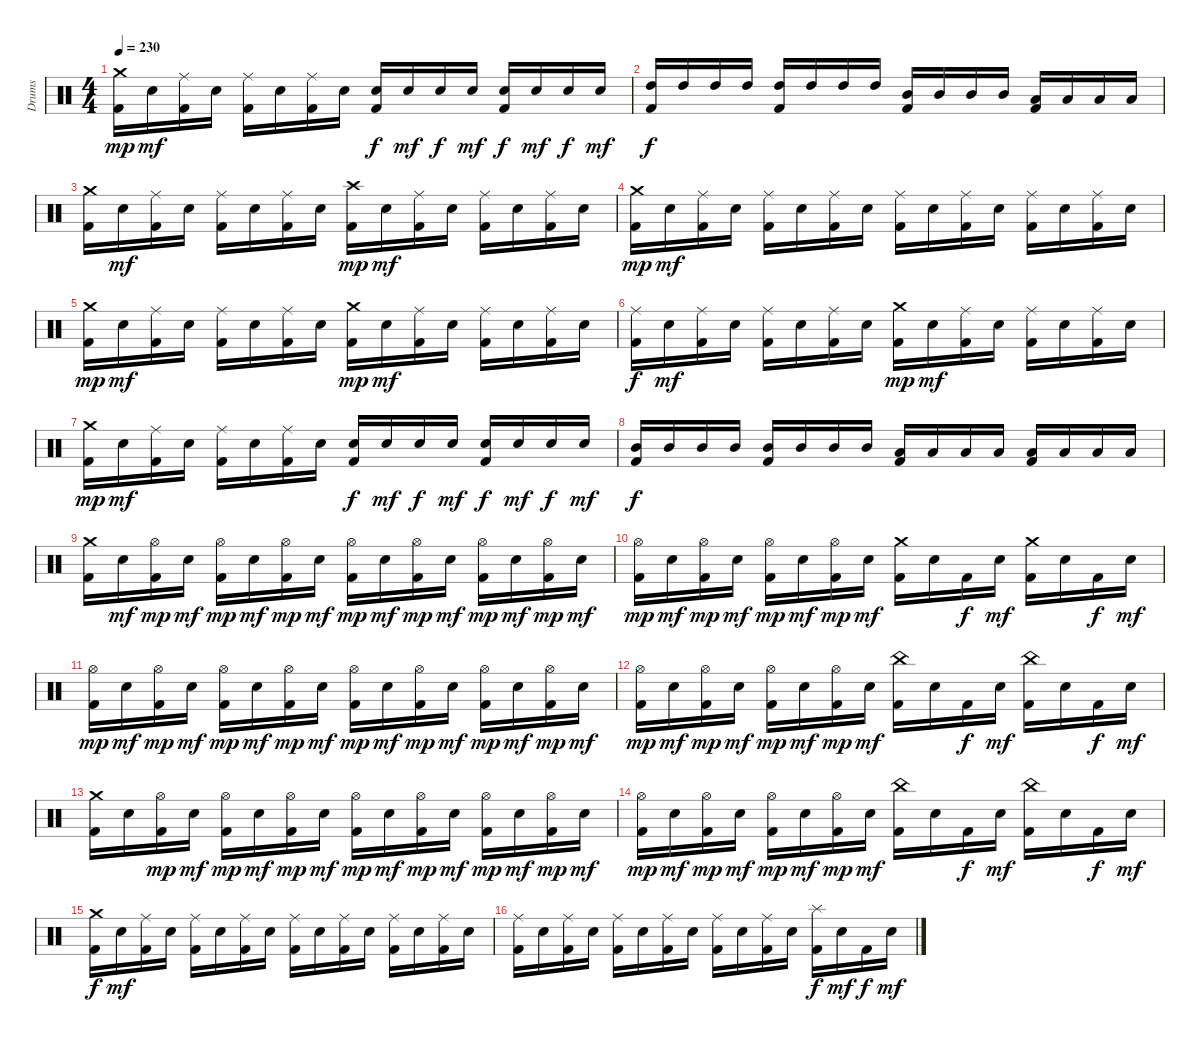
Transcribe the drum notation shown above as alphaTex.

\track ("Drums" "Drums") {instrument percussion}
\staff {score}
\articulation defaults
\ts (4 4)
\tempo 230
\clef neutral
\ks c
("Crash medium (hit)" "Kick (hit) 2").16{dy mp} "Electric Snare (hit)".16{dy mf} ("Ride (middle)" "Kick (hit) 2").16 "Electric Snare (hit)".16 ("Ride (middle)" "Kick (hit) 2").16 "Electric Snare (hit)".16 ("Ride (middle)" "Kick (hit) 2").16 "Electric Snare (hit)".16 ("Electric Snare (hit)" "Kick (hit) 2").16{dy f} "Electric Snare (hit)".16{dy mf} "Electric Snare (hit)".16{dy f} "Electric Snare (hit)".16{dy mf} ("Electric Snare (hit)" "Kick (hit) 2").16{dy f} "Electric Snare (hit)".16{dy mf} "Electric Snare (hit)".16{dy f} "Electric Snare (hit)".16{dy mf} |
("High Tom (hit)" "Kick (hit) 2").16{dy f} "High Tom (hit)".16 "High Tom (hit)".16 "High Tom (hit)".16 ("High Tom (hit)" "Kick (hit) 2").16 "High Tom (hit)".16 "High Tom (hit)".16 "High Tom (hit)".16 ("Mid Tom (hit)" "Kick (hit) 2").16 "Mid Tom (hit)".16 "Mid Tom (hit)".16 "Mid Tom (hit)".16 ("Low Tom (hit)" "Kick (hit) 2").16 "Low Tom (hit)".16 "Low Tom (hit)".16 "Low Tom (hit)".16 |
("Crash medium (hit)" "Kick (hit) 2").16 "Electric Snare (hit)".16{dy mf} ("Ride (middle)" "Kick (hit) 2").16 "Electric Snare (hit)".16 ("Ride (middle)" "Kick (hit) 2").16 "Electric Snare (hit)".16 ("Ride (middle)" "Kick (hit) 2").16 "Electric Snare (hit)".16 ("Crash high (hit)" "Kick (hit) 2").16{dy mp} "Electric Snare (hit)".16{dy mf} ("Ride (middle)" "Kick (hit) 2").16 "Electric Snare (hit)".16 ("Ride (middle)" "Kick (hit) 2").16 "Electric Snare (hit)".16 ("Ride (middle)" "Kick (hit) 2").16 "Electric Snare (hit)".16 |
("Crash medium (hit)" "Kick (hit) 2").16{dy mp} "Electric Snare (hit)".16{dy mf} ("Ride (middle)" "Kick (hit) 2").16 "Electric Snare (hit)".16 ("Ride (middle)" "Kick (hit) 2").16 "Electric Snare (hit)".16 ("Ride (middle)" "Kick (hit) 2").16 "Electric Snare (hit)".16 ("Ride (middle)" "Kick (hit) 2").16 "Electric Snare (hit)".16 ("Ride (middle)" "Kick (hit) 2").16 "Electric Snare (hit)".16 ("Ride (middle)" "Kick (hit) 2").16 "Electric Snare (hit)".16 ("Ride (middle)" "Kick (hit) 2").16 "Electric Snare (hit)".16 |
("Crash medium (hit)" "Kick (hit) 2").16{dy mp} "Electric Snare (hit)".16{dy mf} ("Ride (middle)" "Kick (hit) 2").16 "Electric Snare (hit)".16 ("Ride (middle)" "Kick (hit) 2").16 "Electric Snare (hit)".16 ("Ride (middle)" "Kick (hit) 2").16 "Electric Snare (hit)".16 ("Crash medium (hit)" "Kick (hit) 2").16{dy mp} "Electric Snare (hit)".16{dy mf} ("Ride (middle)" "Kick (hit) 2").16 "Electric Snare (hit)".16 ("Ride (middle)" "Kick (hit) 2").16 "Electric Snare (hit)".16 ("Ride (middle)" "Kick (hit) 2").16 "Electric Snare (hit)".16 |
("Ride (middle)" "Kick (hit) 2").16{dy f} "Electric Snare (hit)".16{dy mf} ("Ride (middle)" "Kick (hit) 2").16 "Electric Snare (hit)".16 ("Ride (middle)" "Kick (hit) 2").16 "Electric Snare (hit)".16 ("Ride (middle)" "Kick (hit) 2").16 "Electric Snare (hit)".16 ("Crash medium (hit)" "Kick (hit) 2").16{dy mp} "Electric Snare (hit)".16{dy mf} ("Ride (middle)" "Kick (hit) 2").16 "Electric Snare (hit)".16 ("Ride (middle)" "Kick (hit) 2").16 "Electric Snare (hit)".16 ("Ride (middle)" "Kick (hit) 2").16 "Electric Snare (hit)".16 |
("Crash medium (hit)" "Kick (hit) 2").16{dy mp} "Electric Snare (hit)".16{dy mf} ("Ride (middle)" "Kick (hit) 2").16 "Electric Snare (hit)".16 ("Ride (middle)" "Kick (hit) 2").16 "Electric Snare (hit)".16 ("Ride (middle)" "Kick (hit) 2").16 "Electric Snare (hit)".16 ("Electric Snare (hit)" "Kick (hit) 2").16{dy f} "Electric Snare (hit)".16{dy mf} "Electric Snare (hit)".16{dy f} "Electric Snare (hit)".16{dy mf} ("Electric Snare (hit)" "Kick (hit) 2").16{dy f} "Electric Snare (hit)".16{dy mf} "Electric Snare (hit)".16{dy f} "Electric Snare (hit)".16{dy mf} |
("Mid Tom (hit)" "Kick (hit) 2").16{dy f} "Mid Tom (hit)".16 "Mid Tom (hit)".16 "Mid Tom (hit)".16 ("Mid Tom (hit)" "Kick (hit) 2").16 "Mid Tom (hit)".16 "Mid Tom (hit)".16 "Mid Tom (hit)".16 ("Low Tom (hit)" "Kick (hit) 2").16 "Low Tom (hit)".16 "Low Tom (hit)".16 "Low Tom (hit)".16 ("Low Tom (hit)" "Kick (hit) 2").16 "Low Tom (hit)".16 "Low Tom (hit)".16 "Low Tom (hit)".16 |
("Crash medium (hit)" "Kick (hit) 2").16 "Electric Snare (hit)".16{dy mf} ("Hi-Hat (open)" "Kick (hit) 2").16{dy mp} "Electric Snare (hit)".16{dy mf} ("Hi-Hat (open)" "Kick (hit) 2").16{dy mp} "Electric Snare (hit)".16{dy mf} ("Hi-Hat (open)" "Kick (hit) 2").16{dy mp} "Electric Snare (hit)".16{dy mf} ("Hi-Hat (open)" "Kick (hit) 2").16{dy mp} "Electric Snare (hit)".16{dy mf} ("Hi-Hat (open)" "Kick (hit) 2").16{dy mp} "Electric Snare (hit)".16{dy mf} ("Hi-Hat (open)" "Kick (hit) 2").16{dy mp} "Electric Snare (hit)".16{dy mf} ("Hi-Hat (open)" "Kick (hit) 2").16{dy mp} "Electric Snare (hit)".16{dy mf} |
("Hi-Hat (open)" "Kick (hit) 2").16{dy mp} "Electric Snare (hit)".16{dy mf} ("Hi-Hat (open)" "Kick (hit) 2").16{dy mp} "Electric Snare (hit)".16{dy mf} ("Hi-Hat (open)" "Kick (hit) 2").16{dy mp} "Electric Snare (hit)".16{dy mf} ("Hi-Hat (open)" "Kick (hit) 2").16{dy mp} "Electric Snare (hit)".16{dy mf} ("Crash medium (hit)" "Kick (hit) 2").16 "Electric Snare (hit)".16 "Kick (hit) 2".16{dy f} "Electric Snare (hit)".16{dy mf} ("Crash medium (hit)" "Kick (hit) 2").16 "Electric Snare (hit)".16 "Kick (hit) 2".16{dy f} "Electric Snare (hit)".16{dy mf} |
("Hi-Hat (open)" "Kick (hit) 2").16{dy mp} "Electric Snare (hit)".16{dy mf} ("Hi-Hat (open)" "Kick (hit) 2").16{dy mp} "Electric Snare (hit)".16{dy mf} ("Hi-Hat (open)" "Kick (hit) 2").16{dy mp} "Electric Snare (hit)".16{dy mf} ("Hi-Hat (open)" "Kick (hit) 2").16{dy mp} "Electric Snare (hit)".16{dy mf} ("Hi-Hat (open)" "Kick (hit) 2").16{dy mp} "Electric Snare (hit)".16{dy mf} ("Hi-Hat (open)" "Kick (hit) 2").16{dy mp} "Electric Snare (hit)".16{dy mf} ("Hi-Hat (open)" "Kick (hit) 2").16{dy mp} "Electric Snare (hit)".16{dy mf} ("Hi-Hat (open)" "Kick (hit) 2").16{dy mp} "Electric Snare (hit)".16{dy mf} |
("Hi-Hat (open)" "Kick (hit) 2").16{dy mp} "Electric Snare (hit)".16{dy mf} ("Hi-Hat (open)" "Kick (hit) 2").16{dy mp} "Electric Snare (hit)".16{dy mf} ("Hi-Hat (open)" "Kick (hit) 2").16{dy mp} "Electric Snare (hit)".16{dy mf} ("Hi-Hat (open)" "Kick (hit) 2").16{dy mp} "Electric Snare (hit)".16{dy mf} ("China (hit)" "Kick (hit) 2").16 "Electric Snare (hit)".16 "Kick (hit) 2".16{dy f} "Electric Snare (hit)".16{dy mf} ("China (hit)" "Kick (hit) 2").16 "Electric Snare (hit)".16 "Kick (hit) 2".16{dy f} "Electric Snare (hit)".16{dy mf} |
("Crash medium (hit)" "Kick (hit) 2").16 "Electric Snare (hit)".16 ("Hi-Hat (open)" "Kick (hit) 2").16{dy mp} "Electric Snare (hit)".16{dy mf} ("Hi-Hat (open)" "Kick (hit) 2").16{dy mp} "Electric Snare (hit)".16{dy mf} ("Hi-Hat (open)" "Kick (hit) 2").16{dy mp} "Electric Snare (hit)".16{dy mf} ("Hi-Hat (open)" "Kick (hit) 2").16{dy mp} "Electric Snare (hit)".16{dy mf} ("Hi-Hat (open)" "Kick (hit) 2").16{dy mp} "Electric Snare (hit)".16{dy mf} ("Hi-Hat (open)" "Kick (hit) 2").16{dy mp} "Electric Snare (hit)".16{dy mf} ("Hi-Hat (open)" "Kick (hit) 2").16{dy mp} "Electric Snare (hit)".16{dy mf} |
("Hi-Hat (open)" "Kick (hit) 2").16{dy mp} "Electric Snare (hit)".16{dy mf} ("Hi-Hat (open)" "Kick (hit) 2").16{dy mp} "Electric Snare (hit)".16{dy mf} ("Hi-Hat (open)" "Kick (hit) 2").16{dy mp} "Electric Snare (hit)".16{dy mf} ("Hi-Hat (open)" "Kick (hit) 2").16{dy mp} "Electric Snare (hit)".16{dy mf} ("China (hit)" "Kick (hit) 2").16 "Electric Snare (hit)".16 "Kick (hit) 2".16{dy f} "Electric Snare (hit)".16{dy mf} ("China (hit)" "Kick (hit) 2").16 "Electric Snare (hit)".16 "Kick (hit) 2".16{dy f} "Electric Snare (hit)".16{dy mf} |
("Crash medium (hit)" "Kick (hit) 2").16{dy f} "Electric Snare (hit)".16{dy mf} ("Ride (middle)" "Kick (hit) 2").16 "Electric Snare (hit)".16 ("Ride (middle)" "Kick (hit) 2").16 "Electric Snare (hit)".16 ("Ride (middle)" "Kick (hit) 2").16 "Electric Snare (hit)".16 ("Ride (middle)" "Kick (hit) 2").16 "Electric Snare (hit)".16 ("Ride (middle)" "Kick (hit) 2").16 "Electric Snare (hit)".16 ("Ride (middle)" "Kick (hit) 2").16 "Electric Snare (hit)".16 ("Ride (middle)" "Kick (hit) 2").16 "Electric Snare (hit)".16 |
("Ride (middle)" "Kick (hit) 2").16 "Electric Snare (hit)".16 ("Ride (middle)" "Kick (hit) 2").16 "Electric Snare (hit)".16 ("Ride (middle)" "Kick (hit) 2").16 "Electric Snare (hit)".16 ("Ride (middle)" "Kick (hit) 2").16 "Electric Snare (hit)".16 ("Ride (middle)" "Kick (hit) 2").16 "Electric Snare (hit)".16 ("Ride (middle)" "Kick (hit) 2").16 "Electric Snare (hit)".16 ("Splash (hit)" "Kick (hit) 2").16{dy f} "Electric Snare (hit)".16{dy mf} "Kick (hit) 2".16{dy f} "Electric Snare (hit)".16{dy mf}
